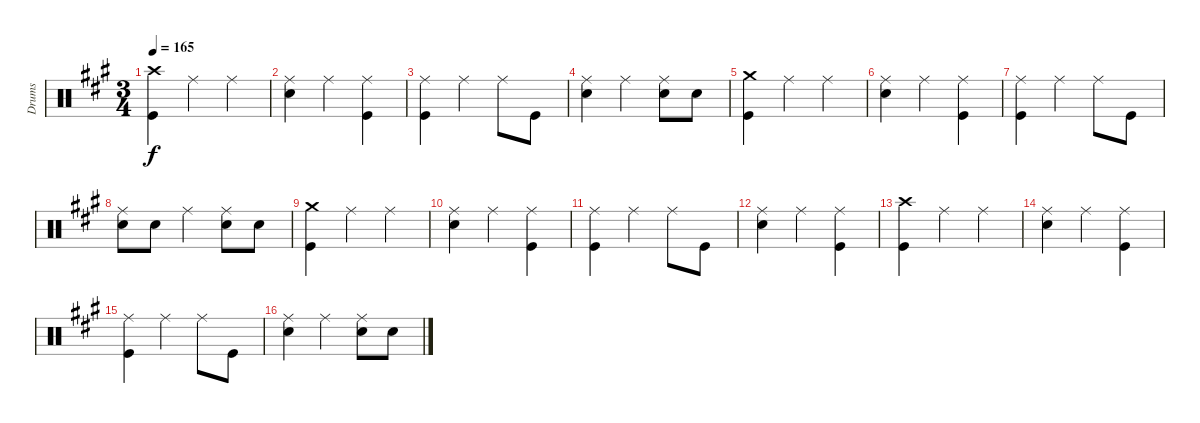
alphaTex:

\track ("Drums" "Drums") {instrument percussion}
\staff {score}
\articulation defaults
\ts (3 4)
\tempo 165
\clef neutral
\ks a
("Crash high (hit)" "Kick (hit)").4{dy f} "Ride (middle)".4 "Ride (middle)".4 |
("Ride (middle)" "Snare (hit) 2").4 "Ride (middle)".4 ("Ride (middle)" "Kick (hit)").4 |
("Ride (middle)" "Kick (hit)").4 "Ride (middle)".4 "Ride (middle)".8 "Kick (hit)".8 |
("Ride (middle)" "Snare (hit) 2").4 "Ride (middle)".4 ("Ride (middle)" "Snare (hit) 2").8 "Snare (hit) 2".8 |
("Crash medium (hit)" "Kick (hit)").4 "Ride (middle)".4 "Ride (middle)".4 |
("Ride (middle)" "Snare (hit) 2").4 "Ride (middle)".4 ("Ride (middle)" "Kick (hit)").4 |
("Ride (middle)" "Kick (hit)").4 "Ride (middle)".4 "Ride (middle)".8 "Kick (hit)".8 |
("Ride (middle)" "Snare (hit) 2").8 "Snare (hit) 2".8 "Ride (middle)".4 ("Ride (middle)" "Snare (hit) 2").8 "Snare (hit) 2".8 |
("Crash medium (hit)" "Kick (hit)").4 "Ride (middle)".4 "Ride (middle)".4 |
("Ride (middle)" "Snare (hit) 2").4 "Ride (middle)".4 ("Ride (middle)" "Kick (hit)").4 |
("Ride (middle)" "Kick (hit)").4 "Ride (middle)".4 "Ride (middle)".8 "Kick (hit)".8 |
("Ride (middle)" "Snare (hit) 2").4 "Ride (middle)".4 ("Ride (middle)" "Kick (hit)").4 |
("Crash high (hit)" "Kick (hit)").4 "Ride (middle)".4 "Ride (middle)".4 |
("Ride (middle)" "Snare (hit) 2").4 "Ride (middle)".4 ("Ride (middle)" "Kick (hit)").4 |
("Ride (middle)" "Kick (hit)").4 "Ride (middle)".4 "Ride (middle)".8 "Kick (hit)".8 |
("Ride (middle)" "Snare (hit) 2").4 "Ride (middle)".4 ("Ride (middle)" "Snare (hit) 2").8 "Snare (hit) 2".8
